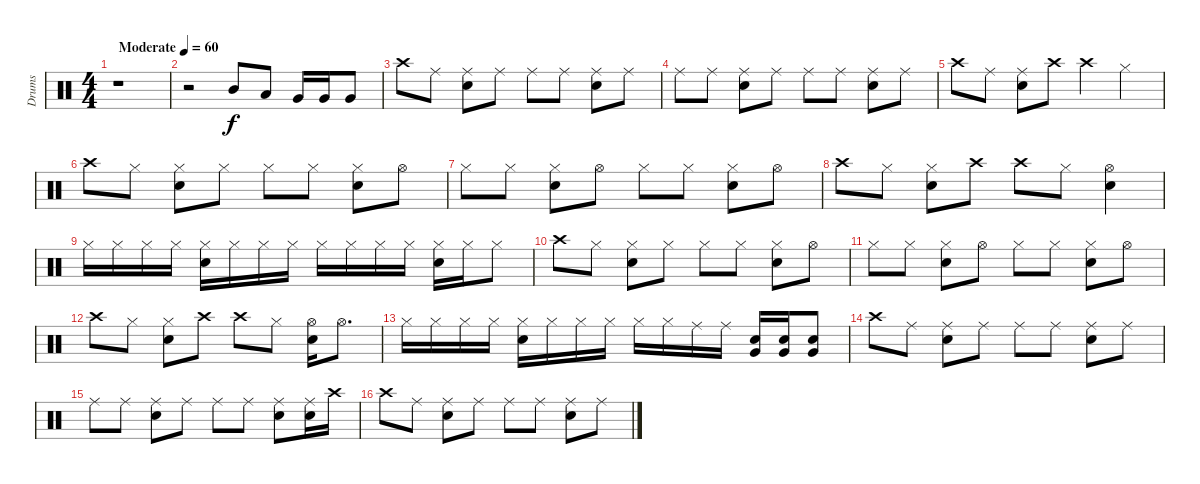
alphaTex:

\track ("Drums" "Drums") {instrument percussion}
\staff {score}
\articulation defaults
\ts (4 4)
\tempo (60 "Moderate")
\clef neutral
\ks c
r.1{dy f} |
r.2 "Mid Tom (hit)".8 "Low Tom (hit)".8 "Very Low Tom (hit)".16 "Very Low Tom (hit)".16 "Very Low Tom (hit)".8 |
"Crash high (hit)".8 "Ride (middle)".8 ("Snare (hit) 2" "Ride (middle)").8 "Ride (middle)".8 "Ride (middle)".8 "Ride (middle)".8 ("Snare (hit) 2" "Ride (middle)").8 "Ride (middle)".8 |
"Ride (middle)".8 "Ride (middle)".8 ("Snare (hit) 2" "Ride (middle)").8 "Ride (middle)".8 "Ride (middle)".8 "Ride (middle)".8 ("Snare (hit) 2" "Ride (middle)").8 "Ride (middle)".8 |
"Crash high (hit)".8 "Ride (middle)".8 ("Snare (hit) 2" "Ride (middle)").8 "Crash high (hit)".8 "Crash high (hit)".4 "Hi-Hat (closed)".4 |
"Crash high (hit)".8 "Hi-Hat (closed)".8 ("Snare (hit) 2" "Hi-Hat (closed)").8 "Hi-Hat (closed)".8 "Hi-Hat (closed)".8 "Hi-Hat (closed)".8 ("Snare (hit) 2" "Hi-Hat (closed)").8 "Hi-Hat (open)".8 |
"Hi-Hat (closed)".8 "Hi-Hat (closed)".8 ("Snare (hit) 2" "Hi-Hat (closed)").8 "Hi-Hat (open)".8 "Hi-Hat (closed)".8 "Hi-Hat (closed)".8 ("Snare (hit) 2" "Hi-Hat (closed)").8 "Hi-Hat (open)".8 |
"Crash high (hit)".8 "Hi-Hat (closed)".8 ("Snare (hit) 2" "Hi-Hat (closed)").8 "Crash high (hit)".8 "Crash high (hit)".8 "Hi-Hat (closed)".8 ("Hi-Hat (open)" "Snare (hit) 2").4 |
"Hi-Hat (closed)".16 "Hi-Hat (closed)".16 "Hi-Hat (closed)".16 "Hi-Hat (closed)".16 ("Snare (hit) 2" "Hi-Hat (closed)").16 "Hi-Hat (closed)".16 "Hi-Hat (closed)".16 "Hi-Hat (closed)".16 "Hi-Hat (closed)".16 "Hi-Hat (closed)".16 "Hi-Hat (closed)".16 "Hi-Hat (closed)".16 ("Snare (hit) 2" "Hi-Hat (closed)").16 "Hi-Hat (closed)".16 "Hi-Hat (closed)".8 |
"Crash high (hit)".8 "Hi-Hat (closed)".8 ("Snare (hit) 2" "Hi-Hat (closed)").8 "Hi-Hat (closed)".8 "Hi-Hat (closed)".8 "Hi-Hat (closed)".8 ("Snare (hit) 2" "Hi-Hat (closed)").8 "Hi-Hat (open)".8 |
"Hi-Hat (closed)".8 "Hi-Hat (closed)".8 ("Snare (hit) 2" "Hi-Hat (closed)").8 "Hi-Hat (open)".8 "Hi-Hat (closed)".8 "Hi-Hat (closed)".8 ("Snare (hit) 2" "Hi-Hat (closed)").8 "Hi-Hat (open)".8 |
"Crash high (hit)".8 "Hi-Hat (closed)".8 ("Snare (hit) 2" "Hi-Hat (closed)").8 "Crash high (hit)".8 "Crash high (hit)".8 "Hi-Hat (closed)".8 ("Snare (hit) 2" "Hi-Hat (open)").16 "Hi-Hat (open)".8{d} |
"Hi-Hat (closed)".16 "Hi-Hat (closed)".16 "Hi-Hat (closed)".16 "Hi-Hat (closed)".16 ("Snare (hit) 2" "Hi-Hat (closed)").16 "Hi-Hat (closed)".16 "Hi-Hat (closed)".16 "Hi-Hat (closed)".16 "Hi-Hat (closed)".16 "Hi-Hat (closed)".16 "Ride (middle)".16 "Ride (middle)".16 ("Very Low Tom (hit)" "Snare (hit) 2").16 ("Very Low Tom (hit)" "Snare (hit) 2").16 ("Very Low Tom (hit)" "Snare (hit) 2").8 |
"Crash high (hit)".8 "Ride (middle)".8 ("Snare (hit) 2" "Ride (middle)").8 "Ride (middle)".8 "Ride (middle)".8 "Ride (middle)".8 ("Snare (hit) 2" "Ride (middle)").8 "Ride (middle)".8 |
"Ride (middle)".8 "Ride (middle)".8 ("Snare (hit) 2" "Ride (middle)").8 "Ride (middle)".8 "Ride (middle)".8 "Ride (middle)".8 ("Snare (hit) 2" "Ride (middle)").8 ("Snare (hit) 2" "Ride (middle)").16 "Crash high (hit)".16 |
"Crash high (hit)".8 "Ride (middle)".8 ("Snare (hit) 2" "Ride (middle)").8 "Ride (middle)".8 "Ride (middle)".8 "Ride (middle)".8 ("Snare (hit) 2" "Ride (middle)").8 "Ride (middle)".8
